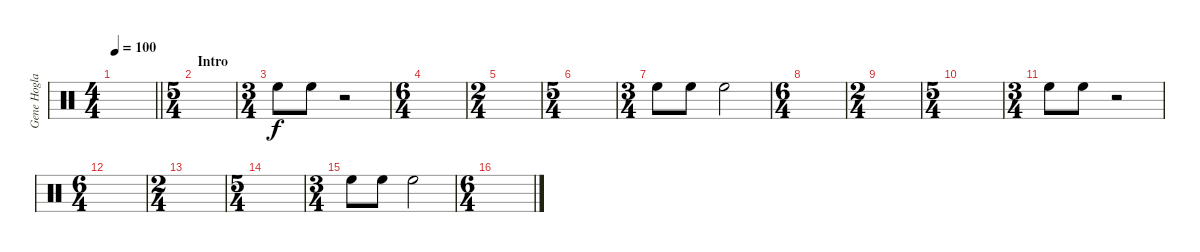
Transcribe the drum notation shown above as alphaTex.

\track ("Gene Hoglan" "Gene Hogla") {instrument percussion}
\staff {score}
\articulation defaults
\ts (4 4)
\tempo 100
\clef neutral
\barLineRight lightlight
\ks c
|
\ts (5 4)
\section ("" "Intro")
|
\ts (3 4)
"High Floor Tom (hit)".8 "High Floor Tom (hit)".8 r.2 |
\ts (6 4)
|
\ts (2 4)
|
\ts (5 4)
|
\ts (3 4)
"High Floor Tom (hit)".8 "High Floor Tom (hit)".8 "High Floor Tom (hit)".2 |
\ts (6 4)
|
\ts (2 4)
|
\ts (5 4)
|
\ts (3 4)
"High Floor Tom (hit)".8 "High Floor Tom (hit)".8 r.2 |
\ts (6 4)
|
\ts (2 4)
|
\ts (5 4)
|
\ts (3 4)
"High Floor Tom (hit)".8 "High Floor Tom (hit)".8 "High Floor Tom (hit)".2 |
\ts (6 4)
